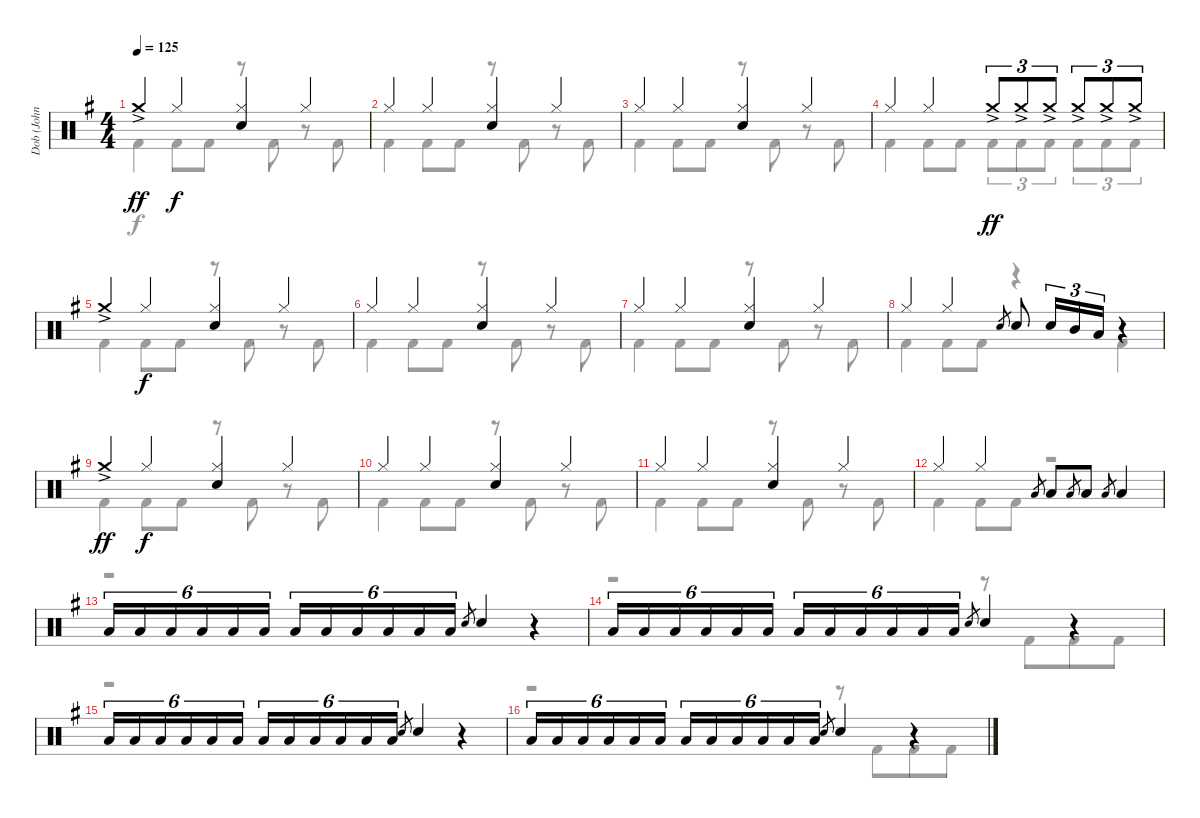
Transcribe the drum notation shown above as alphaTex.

\track ("Dob (John Macaluso)" "Dob (John ") {instrument percussion}
\staff {score}
\articulation defaults
\voice
\ts (4 4)
\tempo 125
\clef neutral
\ks g "Crash medium (hit)"{ac}.4{dy ff} "Hi-Hat (closed)".4{dy f}
("Hi-Hat (closed)" "Electric Snare (hit)").4 "Hi-Hat (closed)".4 |
"Hi-Hat (closed)".4 "Hi-Hat (closed)".4 ("Hi-Hat (closed)" "Electric Snare (hit)").4 "Hi-Hat (closed)".4 |
"Hi-Hat (closed)".4 "Hi-Hat (closed)".4 ("Hi-Hat (closed)" "Electric Snare (hit)").4 "Hi-Hat (closed)".4 |
"Hi-Hat (closed)".4 "Hi-Hat (closed)".4 "Crash medium (hit)"{ac}.8{tu (3 2) dy ff} "Crash medium (hit)"{ac}.8{tu (3 2)} "Crash medium (hit)"{ac}.8{tu (3 2)} "Crash medium (hit)"{ac}.8{tu (3 2)} "Crash medium (hit)"{ac}.8{tu (3 2)} "Crash medium (hit)"{ac}.8{tu (3 2)} |
"Crash medium (hit)"{ac}.4 "Hi-Hat (closed)".4{dy f} ("Hi-Hat (closed)" "Electric Snare (hit)").4 "Hi-Hat (closed)".4 |
"Hi-Hat (closed)".4 "Hi-Hat (closed)".4 ("Hi-Hat (closed)" "Electric Snare (hit)").4 "Hi-Hat (closed)".4 |
"Hi-Hat (closed)".4 "Hi-Hat (closed)".4 ("Hi-Hat (closed)" "Electric Snare (hit)").4 "Hi-Hat (closed)".4 |
"Hi-Hat (closed)".4 "Hi-Hat (closed)".4 "Electric Snare (hit)".8{gr} "Electric Snare (hit)".8 "Electric Snare (hit)".16{tu (3 2)} "Mid Tom (hit)".16{tu (3 2)} "Low Tom (hit)".16{tu (3 2)} r.4 |
"Crash medium (hit)"{ac}.4{dy ff} "Hi-Hat (closed)".4{dy f} ("Hi-Hat (closed)" "Electric Snare (hit)").4 "Hi-Hat (closed)".4 |
"Hi-Hat (closed)".4 "Hi-Hat (closed)".4 ("Hi-Hat (closed)" "Electric Snare (hit)").4 "Hi-Hat (closed)".4 |
"Hi-Hat (closed)".4 "Hi-Hat (closed)".4 ("Hi-Hat (closed)" "Electric Snare (hit)").4 "Hi-Hat (closed)".4 |
"Hi-Hat (closed)".4 "Hi-Hat (closed)".4 "Low Tom (hit)".8{gr} "Low Tom (hit)".8 "Low Tom (hit)".8{gr} "Low Tom (hit)".8 "Low Tom (hit)".8{gr} "Low Tom (hit)".4 |
"Low Tom (hit)".16{tu (6 4)} "Low Tom (hit)".16{tu (6 4)} "Low Tom (hit)".16{tu (6 4)} "Low Tom (hit)".16{tu (6 4)} "Low Tom (hit)".16{tu (6 4)} "Low Tom (hit)".16{tu (6 4)} "Low Tom (hit)".16{tu (6 4)} "Low Tom (hit)".16{tu (6 4)} "Low Tom (hit)".16{tu (6 4)} "Low Tom (hit)".16{tu (6 4)} "Low Tom (hit)".16{tu (6 4)} "Low Tom (hit)".16{tu (6 4)} "Electric Snare (hit)".8{gr} "Electric Snare (hit)".4 r.4 |
"Low Tom (hit)".16{tu (6 4)} "Low Tom (hit)".16{tu (6 4)} "Low Tom (hit)".16{tu (6 4)} "Low Tom (hit)".16{tu (6 4)} "Low Tom (hit)".16{tu (6 4)} "Low Tom (hit)".16{tu (6 4)} "Low Tom (hit)".16{tu (6 4)} "Low Tom (hit)".16{tu (6 4)} "Low Tom (hit)".16{tu (6 4)} "Low Tom (hit)".16{tu (6 4)} "Low Tom (hit)".16{tu (6 4)} "Low Tom (hit)".16{tu (6 4)} "Electric Snare (hit)".8{gr} "Electric Snare (hit)".4 r.4 |
"Low Tom (hit)".16{tu (6 4)} "Low Tom (hit)".16{tu (6 4)} "Low Tom (hit)".16{tu (6 4)} "Low Tom (hit)".16{tu (6 4)} "Low Tom (hit)".16{tu (6 4)} "Low Tom (hit)".16{tu (6 4)} "Low Tom (hit)".16{tu (6 4)} "Low Tom (hit)".16{tu (6 4)} "Low Tom (hit)".16{tu (6 4)} "Low Tom (hit)".16{tu (6 4)} "Low Tom (hit)".16{tu (6 4)} "Low Tom (hit)".16{tu (6 4)} "Electric Snare (hit)".8{gr} "Electric Snare (hit)".4 r.4 |
"Low Tom (hit)".16{tu (6 4)} "Low Tom (hit)".16{tu (6 4)} "Low Tom (hit)".16{tu (6 4)} "Low Tom (hit)".16{tu (6 4)} "Low Tom (hit)".16{tu (6 4)} "Low Tom (hit)".16{tu (6 4)} "Low Tom (hit)".16{tu (6 4)} "Low Tom (hit)".16{tu (6 4)} "Low Tom (hit)".16{tu (6 4)} "Low Tom (hit)".16{tu (6 4)} "Low Tom (hit)".16{tu (6 4)} "Low Tom (hit)".16{tu (6 4)} "Electric Snare (hit)".8{gr} "Electric Snare (hit)".4 r.4
\voice
\clef neutral
\ottava regular
\simile none
\ks g "Kick (hit) 2".4{dy f} "Kick (hit) 2".8 "Kick (hit) 2".8
r.8 "Kick (hit) 2".8 r.8 "Kick (hit) 2".8 |
"Kick (hit) 2".4 "Kick (hit) 2".8 "Kick (hit) 2".8 r.8 "Kick (hit) 2".8 r.8 "Kick (hit) 2".8 |
"Kick (hit) 2".4 "Kick (hit) 2".8 "Kick (hit) 2".8 r.8 "Kick (hit) 2".8 r.8 "Kick (hit) 2".8 |
"Kick (hit) 2".4 "Kick (hit) 2".8 "Kick (hit) 2".8 "Kick (hit) 2".8{tu (3 2)} "Kick (hit) 2".8{tu (3 2)} "Kick (hit) 2".8{tu (3 2)} "Kick (hit) 2".8{tu (3 2)} "Kick (hit) 2".8{tu (3 2)} "Kick (hit) 2".8{tu (3 2)} |
"Kick (hit) 2".4 "Kick (hit) 2".8 "Kick (hit) 2".8 r.8 "Kick (hit) 2".8 r.8 "Kick (hit) 2".8 |
"Kick (hit) 2".4 "Kick (hit) 2".8 "Kick (hit) 2".8 r.8 "Kick (hit) 2".8 r.8 "Kick (hit) 2".8 |
"Kick (hit) 2".4 "Kick (hit) 2".8 "Kick (hit) 2".8 r.8 "Kick (hit) 2".8 r.8 "Kick (hit) 2".8 |
"Kick (hit) 2".4 "Kick (hit) 2".8 "Kick (hit) 2".8 r.4 "Kick (hit) 2".4 |
"Kick (hit) 2".4 "Kick (hit) 2".8 "Kick (hit) 2".8 r.8 "Kick (hit) 2".8 r.8 "Kick (hit) 2".8 |
"Kick (hit) 2".4 "Kick (hit) 2".8 "Kick (hit) 2".8 r.8 "Kick (hit) 2".8 r.8 "Kick (hit) 2".8 |
"Kick (hit) 2".4 "Kick (hit) 2".8 "Kick (hit) 2".8 r.8 "Kick (hit) 2".8 r.8 "Kick (hit) 2".8 |
"Kick (hit) 2".4 "Kick (hit) 2".8 "Kick (hit) 2".8 r.2 |
r.1 |
r.2 r.8 "Kick (hit) 2".8{beam merge} "Kick (hit) 2".8 "Kick (hit) 2".8 |
r.1 |
r.2 r.8 "Kick (hit) 2".8{beam merge} "Kick (hit) 2".8 "Kick (hit) 2".8
